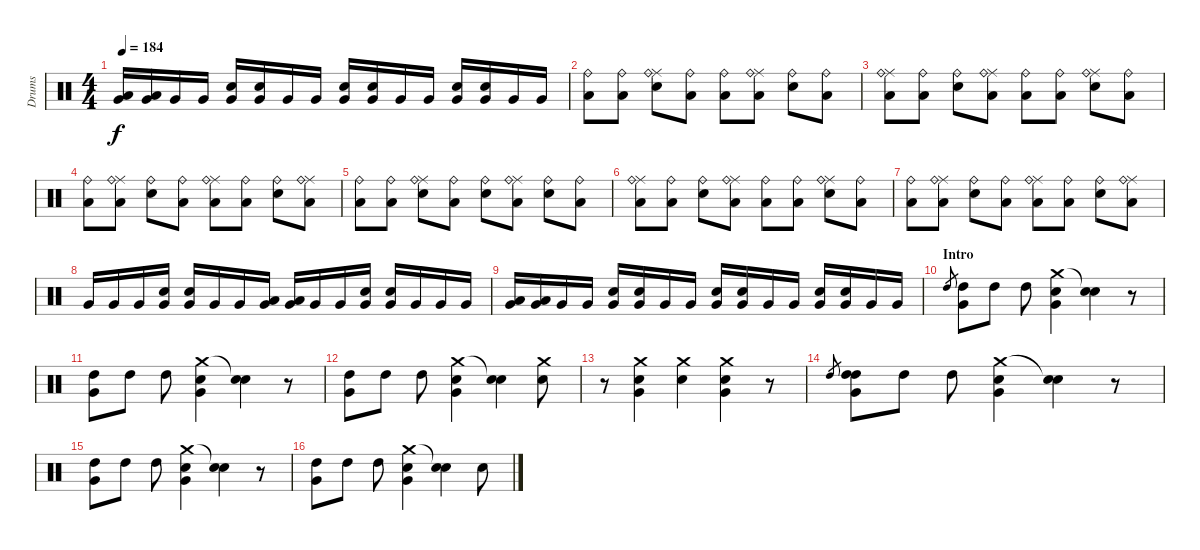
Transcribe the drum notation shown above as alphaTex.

\track ("Drums" "Drums") {instrument percussion}
\staff {score}
\articulation defaults
\ts (4 4)
\tempo 184
\clef neutral
\ks c
("Low Tom (hit)" "Very Low Tom (hit)").16{dy f} ("Low Tom (hit)" "Very Low Tom (hit)").16 "Very Low Tom (hit)".16 "Very Low Tom (hit)".16 ("Electric Snare (hit)" "Very Low Tom (hit)").16 ("Electric Snare (hit)" "Very Low Tom (hit)").16 "Very Low Tom (hit)".16 "Very Low Tom (hit)".16 ("Electric Snare (hit)" "Very Low Tom (hit)").16 ("Electric Snare (hit)" "Very Low Tom (hit)").16 "Very Low Tom (hit)".16 "Very Low Tom (hit)".16 ("Electric Snare (hit)" "Very Low Tom (hit)").16 ("Electric Snare (hit)" "Very Low Tom (hit)").16 "Very Low Tom (hit)".16 "Very Low Tom (hit)".16 |
("Ride (bell)" "Low Tom (hit)").8 ("Ride (bell)" "Low Tom (hit)").8 ("Ride (middle)" "Ride (bell)" "Electric Snare (hit)").8 ("Ride (bell)" "Low Tom (hit)").8 ("Ride (bell)" "Low Tom (hit)").8 ("Ride (middle)" "Ride (bell)" "Low Tom (hit)").8 ("Ride (bell)" "Electric Snare (hit)").8 ("Ride (bell)" "Low Tom (hit)").8 |
("Ride (middle)" "Ride (bell)" "Low Tom (hit)").8 ("Ride (bell)" "Low Tom (hit)").8 ("Ride (bell)" "Electric Snare (hit)").8 ("Ride (middle)" "Ride (bell)" "Low Tom (hit)").8 ("Ride (bell)" "Low Tom (hit)").8 ("Ride (bell)" "Low Tom (hit)").8 ("Ride (middle)" "Ride (bell)" "Electric Snare (hit)").8 ("Ride (bell)" "Low Tom (hit)").8 |
("Ride (bell)" "Low Tom (hit)").8 ("Ride (middle)" "Ride (bell)" "Low Tom (hit)").8 ("Ride (bell)" "Electric Snare (hit)").8 ("Ride (bell)" "Low Tom (hit)").8 ("Ride (middle)" "Ride (bell)" "Low Tom (hit)").8 ("Ride (bell)" "Low Tom (hit)").8 ("Ride (bell)" "Electric Snare (hit)").8 ("Ride (middle)" "Ride (bell)" "Low Tom (hit)").8 |
("Ride (bell)" "Low Tom (hit)").8 ("Ride (bell)" "Low Tom (hit)").8 ("Ride (middle)" "Ride (bell)" "Electric Snare (hit)").8 ("Ride (bell)" "Low Tom (hit)").8 ("Ride (bell)" "Electric Snare (hit)").8 ("Ride (middle)" "Ride (bell)" "Low Tom (hit)").8 ("Ride (bell)" "Electric Snare (hit)").8 ("Ride (bell)" "Low Tom (hit)").8 |
("Ride (middle)" "Ride (bell)" "Low Tom (hit)").8 ("Ride (bell)" "Low Tom (hit)").8 ("Ride (bell)" "Electric Snare (hit)").8 ("Ride (middle)" "Ride (bell)" "Low Tom (hit)").8 ("Ride (bell)" "Low Tom (hit)").8 ("Ride (bell)" "Low Tom (hit)").8 ("Ride (middle)" "Ride (bell)" "Electric Snare (hit)").8 ("Ride (bell)" "Low Tom (hit)").8 |
("Ride (bell)" "Low Tom (hit)").8 ("Ride (middle)" "Ride (bell)" "Low Tom (hit)").8 ("Ride (bell)" "Electric Snare (hit)").8 ("Ride (bell)" "Low Tom (hit)").8 ("Ride (middle)" "Ride (bell)" "Low Tom (hit)").8 ("Ride (bell)" "Low Tom (hit)").8 ("Ride (bell)" "Electric Snare (hit)").8 ("Ride (middle)" "Ride (bell)" "Low Tom (hit)").8 |
"Very Low Tom (hit)".16 "Very Low Tom (hit)".16 "Very Low Tom (hit)".16 ("Electric Snare (hit)" "Very Low Tom (hit)").16 ("Electric Snare (hit)" "Very Low Tom (hit)").16 "Very Low Tom (hit)".16 "Very Low Tom (hit)".16 ("Low Tom (hit)" "Very Low Tom (hit)").16 ("Low Tom (hit)" "Very Low Tom (hit)").16 "Very Low Tom (hit)".16 "Very Low Tom (hit)".16 ("Electric Snare (hit)" "Very Low Tom (hit)").16 ("Electric Snare (hit)" "Very Low Tom (hit)").16 "Very Low Tom (hit)".16 "Very Low Tom (hit)".16 "Very Low Tom (hit)".16 |
("Low Tom (hit)" "Very Low Tom (hit)").16 ("Low Tom (hit)" "Very Low Tom (hit)").16 "Very Low Tom (hit)".16 "Very Low Tom (hit)".16 ("Electric Snare (hit)" "Very Low Tom (hit)").16 ("Electric Snare (hit)" "Very Low Tom (hit)").16 "Very Low Tom (hit)".16 "Very Low Tom (hit)".16 ("Electric Snare (hit)" "Very Low Tom (hit)").16 ("Electric Snare (hit)" "Very Low Tom (hit)").16 "Very Low Tom (hit)".16 "Very Low Tom (hit)".16 ("Electric Snare (hit)" "Very Low Tom (hit)").16 ("Electric Snare (hit)" "Very Low Tom (hit)").16 "Very Low Tom (hit)".16 "Very Low Tom (hit)".16 |
\section ("" "Intro")
"High Tom (hit)".8{gr} ("High Tom (hit)" "Very Low Tom (hit)").8 "High Tom (hit)".8 "High Tom (hit)".8 ("Crash medium (hit)" "Electric Snare (hit)" "Very Low Tom (hit)").4 ("Snare (hit)"{t} "Electric Snare (hit)").4 r.8 |
("High Tom (hit)" "Very Low Tom (hit)").8 "High Tom (hit)".8 "High Tom (hit)".8 ("Crash medium (hit)" "Electric Snare (hit)" "Very Low Tom (hit)").4 ("Snare (hit)"{t} "Electric Snare (hit)").4 r.8 |
("High Tom (hit)" "Very Low Tom (hit)").8 "High Tom (hit)".8 "High Tom (hit)".8 ("Crash medium (hit)" "Electric Snare (hit)" "Very Low Tom (hit)").4 ("Snare (hit)"{t} "Electric Snare (hit)").4 ("Crash medium (hit)" "Electric Snare (hit)").8 |
r.8 ("Crash medium (hit)" "Electric Snare (hit)" "Very Low Tom (hit)").4 ("Crash medium (hit)" "Snare (hit) 2").4 ("Crash medium (hit)" "Electric Snare (hit)" "Very Low Tom (hit)").4 r.8 |
"High Tom (hit)".8{gr} ("High Tom (hit)" "High Tom (hit)" "Very Low Tom (hit)").8 "High Tom (hit)".8 "High Tom (hit)".8 ("Crash medium (hit)" "Electric Snare (hit)" "Very Low Tom (hit)").4 ("Snare (hit)"{t} "Electric Snare (hit)").4 r.8 |
("High Tom (hit)" "Very Low Tom (hit)").8 "High Tom (hit)".8 "High Tom (hit)".8 ("Crash medium (hit)" "Electric Snare (hit)" "Very Low Tom (hit)").4 ("Snare (hit)"{t} "Electric Snare (hit)").4 r.8 |
("High Tom (hit)" "Very Low Tom (hit)").8 "High Tom (hit)".8 "High Tom (hit)".8 ("Crash medium (hit)" "Electric Snare (hit)" "Very Low Tom (hit)").4 ("Snare (hit)"{t} "Electric Snare (hit)").4 "Electric Snare (hit)".8
